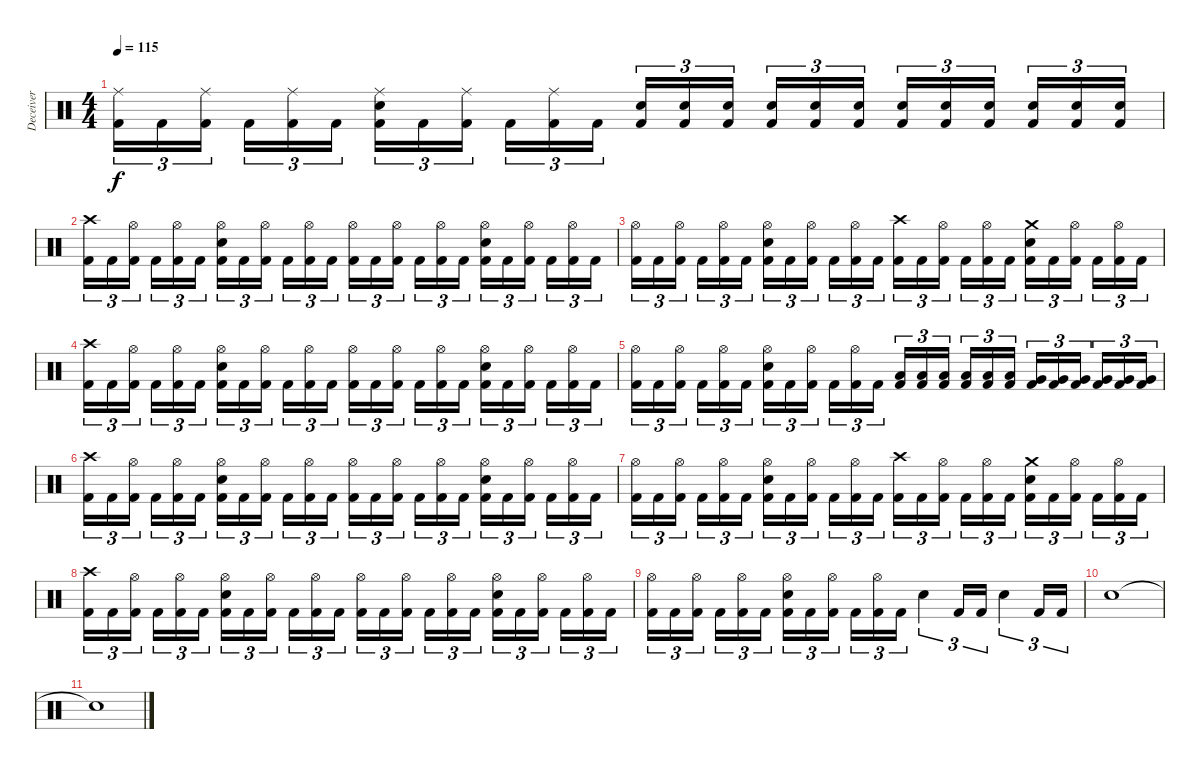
\track ("Deceiver" "Deceiver") {instrument percussion}
\staff {score}
\articulation defaults
\ts (4 4)
\tempo 115
\clef neutral
\ks c
("Ride (middle)" "Kick (hit) 2").16{tu (3 2) dy f} "Kick (hit) 2".16{tu (3 2)} ("Ride (middle)" "Kick (hit) 2").16{tu (3 2) beam splitsecondary} "Kick (hit) 2".16{tu (3 2)} ("Ride (middle)" "Kick (hit) 2").16{tu (3 2)} "Kick (hit) 2".16{tu (3 2)} ("Ride (middle)" "Electric Snare (hit)" "Kick (hit) 2").16{tu (3 2)} "Kick (hit) 2".16{tu (3 2)} ("Ride (middle)" "Kick (hit) 2").16{tu (3 2) beam splitsecondary} "Kick (hit) 2".16{tu (3 2)} ("Ride (middle)" "Kick (hit) 2").16{tu (3 2)} "Kick (hit) 2".16{tu (3 2)} ("Electric Snare (hit)" "Kick (hit) 2").16{tu (3 2)} ("Electric Snare (hit)" "Kick (hit) 2").16{tu (3 2)} ("Electric Snare (hit)" "Kick (hit) 2").16{tu (3 2) beam splitsecondary} ("Electric Snare (hit)" "Kick (hit) 2").16{tu (3 2)} ("Electric Snare (hit)" "Kick (hit) 2").16{tu (3 2)} ("Electric Snare (hit)" "Kick (hit) 2").16{tu (3 2)} ("Electric Snare (hit)" "Kick (hit) 2").16{tu (3 2)} ("Electric Snare (hit)" "Kick (hit) 2").16{tu (3 2)} ("Electric Snare (hit)" "Kick (hit) 2").16{tu (3 2) beam splitsecondary} ("Electric Snare (hit)" "Kick (hit) 2").16{tu (3 2)} ("Electric Snare (hit)" "Kick (hit) 2").16{tu (3 2)} ("Electric Snare (hit)" "Kick (hit) 2").16{tu (3 2)} |
("Crash high (hit)" "Kick (hit) 2").16{tu (3 2)} "Kick (hit) 2".16{tu (3 2)} ("Hi-Hat (open)" "Kick (hit) 2").16{tu (3 2) beam splitsecondary} "Kick (hit) 2".16{tu (3 2)} ("Hi-Hat (open)" "Kick (hit) 2").16{tu (3 2)} "Kick (hit) 2".16{tu (3 2)} ("Hi-Hat (open)" "Electric Snare (hit)" "Kick (hit) 2").16{tu (3 2)} "Kick (hit) 2".16{tu (3 2)} ("Hi-Hat (open)" "Kick (hit) 2").16{tu (3 2) beam splitsecondary} "Kick (hit) 2".16{tu (3 2)} ("Hi-Hat (open)" "Kick (hit) 2").16{tu (3 2)} "Kick (hit) 2".16{tu (3 2)} ("Hi-Hat (open)" "Kick (hit) 2").16{tu (3 2)} "Kick (hit) 2".16{tu (3 2)} ("Hi-Hat (open)" "Kick (hit) 2").16{tu (3 2) beam splitsecondary} "Kick (hit) 2".16{tu (3 2)} ("Hi-Hat (open)" "Kick (hit) 2").16{tu (3 2)} "Kick (hit) 2".16{tu (3 2)} ("Hi-Hat (open)" "Electric Snare (hit)" "Kick (hit) 2").16{tu (3 2)} "Kick (hit) 2".16{tu (3 2)} ("Hi-Hat (open)" "Kick (hit) 2").16{tu (3 2) beam splitsecondary} "Kick (hit) 2".16{tu (3 2)} ("Hi-Hat (open)" "Kick (hit) 2").16{tu (3 2)} "Kick (hit) 2".16{tu (3 2)} |
("Hi-Hat (open)" "Kick (hit) 2").16{tu (3 2)} "Kick (hit) 2".16{tu (3 2)} ("Hi-Hat (open)" "Kick (hit) 2").16{tu (3 2) beam splitsecondary} "Kick (hit) 2".16{tu (3 2)} ("Hi-Hat (open)" "Kick (hit) 2").16{tu (3 2)} "Kick (hit) 2".16{tu (3 2)} ("Hi-Hat (open)" "Electric Snare (hit)" "Kick (hit) 2").16{tu (3 2)} "Kick (hit) 2".16{tu (3 2)} ("Hi-Hat (open)" "Kick (hit) 2").16{tu (3 2) beam splitsecondary} "Kick (hit) 2".16{tu (3 2)} ("Hi-Hat (open)" "Kick (hit) 2").16{tu (3 2)} "Kick (hit) 2".16{tu (3 2)} ("Crash high (hit)" "Kick (hit) 2").16{tu (3 2)} "Kick (hit) 2".16{tu (3 2)} ("Hi-Hat (open)" "Kick (hit) 2").16{tu (3 2) beam splitsecondary} "Kick (hit) 2".16{tu (3 2)} ("Hi-Hat (open)" "Kick (hit) 2").16{tu (3 2)} "Kick (hit) 2".16{tu (3 2)} ("Crash medium (hit)" "Electric Snare (hit)" "Kick (hit) 2").16{tu (3 2)} "Kick (hit) 2".16{tu (3 2)} ("Hi-Hat (open)" "Kick (hit) 2").16{tu (3 2) beam splitsecondary} "Kick (hit) 2".16{tu (3 2)} ("Hi-Hat (open)" "Kick (hit) 2").16{tu (3 2)} "Kick (hit) 2".16{tu (3 2)} |
("Crash high (hit)" "Kick (hit) 2").16{tu (3 2)} "Kick (hit) 2".16{tu (3 2)} ("Hi-Hat (open)" "Kick (hit) 2").16{tu (3 2) beam splitsecondary} "Kick (hit) 2".16{tu (3 2)} ("Hi-Hat (open)" "Kick (hit) 2").16{tu (3 2)} "Kick (hit) 2".16{tu (3 2)} ("Hi-Hat (open)" "Electric Snare (hit)" "Kick (hit) 2").16{tu (3 2)} "Kick (hit) 2".16{tu (3 2)} ("Hi-Hat (open)" "Kick (hit) 2").16{tu (3 2) beam splitsecondary} "Kick (hit) 2".16{tu (3 2)} ("Hi-Hat (open)" "Kick (hit) 2").16{tu (3 2)} "Kick (hit) 2".16{tu (3 2)} ("Hi-Hat (open)" "Kick (hit) 2").16{tu (3 2)} "Kick (hit) 2".16{tu (3 2)} ("Hi-Hat (open)" "Kick (hit) 2").16{tu (3 2) beam splitsecondary} "Kick (hit) 2".16{tu (3 2)} ("Hi-Hat (open)" "Kick (hit) 2").16{tu (3 2)} "Kick (hit) 2".16{tu (3 2)} ("Hi-Hat (open)" "Electric Snare (hit)" "Kick (hit) 2").16{tu (3 2)} "Kick (hit) 2".16{tu (3 2)} ("Hi-Hat (open)" "Kick (hit) 2").16{tu (3 2) beam splitsecondary} "Kick (hit) 2".16{tu (3 2)} ("Hi-Hat (open)" "Kick (hit) 2").16{tu (3 2)} "Kick (hit) 2".16{tu (3 2)} |
("Hi-Hat (open)" "Kick (hit) 2").16{tu (3 2)} "Kick (hit) 2".16{tu (3 2)} ("Hi-Hat (open)" "Kick (hit) 2").16{tu (3 2) beam splitsecondary} "Kick (hit) 2".16{tu (3 2)} ("Hi-Hat (open)" "Kick (hit) 2").16{tu (3 2)} "Kick (hit) 2".16{tu (3 2)} ("Hi-Hat (open)" "Electric Snare (hit)" "Kick (hit) 2").16{tu (3 2)} "Kick (hit) 2".16{tu (3 2)} ("Hi-Hat (open)" "Kick (hit) 2").16{tu (3 2) beam splitsecondary} "Kick (hit) 2".16{tu (3 2)} ("Hi-Hat (open)" "Kick (hit) 2").16{tu (3 2)} "Kick (hit) 2".16{tu (3 2)} ("Low Tom (hit)" "Kick (hit) 2").16{tu (3 2)} ("Low Tom (hit)" "Kick (hit) 2").16{tu (3 2)} ("Low Tom (hit)" "Kick (hit) 2").16{tu (3 2) beam splitsecondary} ("Low Tom (hit)" "Kick (hit) 2").16{tu (3 2)} ("Low Tom (hit)" "Kick (hit) 2").16{tu (3 2)} ("Low Tom (hit)" "Kick (hit) 2").16{tu (3 2)} ("Very Low Tom (hit)" "Kick (hit) 2").16{tu (3 2)} ("Very Low Tom (hit)" "Kick (hit) 2").16{tu (3 2)} ("Very Low Tom (hit)" "Kick (hit) 2").16{tu (3 2) beam splitsecondary} ("Very Low Tom (hit)" "Kick (hit) 2").16{tu (3 2)} ("Very Low Tom (hit)" "Kick (hit) 2").16{tu (3 2)} ("Very Low Tom (hit)" "Kick (hit) 2").16{tu (3 2)} |
("Crash high (hit)" "Kick (hit) 2").16{tu (3 2)} "Kick (hit) 2".16{tu (3 2)} ("Hi-Hat (open)" "Kick (hit) 2").16{tu (3 2) beam splitsecondary} "Kick (hit) 2".16{tu (3 2)} ("Hi-Hat (open)" "Kick (hit) 2").16{tu (3 2)} "Kick (hit) 2".16{tu (3 2)} ("Hi-Hat (open)" "Electric Snare (hit)" "Kick (hit) 2").16{tu (3 2)} "Kick (hit) 2".16{tu (3 2)} ("Hi-Hat (open)" "Kick (hit) 2").16{tu (3 2) beam splitsecondary} "Kick (hit) 2".16{tu (3 2)} ("Hi-Hat (open)" "Kick (hit) 2").16{tu (3 2)} "Kick (hit) 2".16{tu (3 2)} ("Hi-Hat (open)" "Kick (hit) 2").16{tu (3 2)} "Kick (hit) 2".16{tu (3 2)} ("Hi-Hat (open)" "Kick (hit) 2").16{tu (3 2) beam splitsecondary} "Kick (hit) 2".16{tu (3 2)} ("Hi-Hat (open)" "Kick (hit) 2").16{tu (3 2)} "Kick (hit) 2".16{tu (3 2)} ("Hi-Hat (open)" "Electric Snare (hit)" "Kick (hit) 2").16{tu (3 2)} "Kick (hit) 2".16{tu (3 2)} ("Hi-Hat (open)" "Kick (hit) 2").16{tu (3 2) beam splitsecondary} "Kick (hit) 2".16{tu (3 2)} ("Hi-Hat (open)" "Kick (hit) 2").16{tu (3 2)} "Kick (hit) 2".16{tu (3 2)} |
("Hi-Hat (open)" "Kick (hit) 2").16{tu (3 2)} "Kick (hit) 2".16{tu (3 2)} ("Hi-Hat (open)" "Kick (hit) 2").16{tu (3 2) beam splitsecondary} "Kick (hit) 2".16{tu (3 2)} ("Hi-Hat (open)" "Kick (hit) 2").16{tu (3 2)} "Kick (hit) 2".16{tu (3 2)} ("Hi-Hat (open)" "Electric Snare (hit)" "Kick (hit) 2").16{tu (3 2)} "Kick (hit) 2".16{tu (3 2)} ("Hi-Hat (open)" "Kick (hit) 2").16{tu (3 2) beam splitsecondary} "Kick (hit) 2".16{tu (3 2)} ("Hi-Hat (open)" "Kick (hit) 2").16{tu (3 2)} "Kick (hit) 2".16{tu (3 2)} ("Crash high (hit)" "Kick (hit) 2").16{tu (3 2)} "Kick (hit) 2".16{tu (3 2)} ("Hi-Hat (open)" "Kick (hit) 2").16{tu (3 2) beam splitsecondary} "Kick (hit) 2".16{tu (3 2)} ("Hi-Hat (open)" "Kick (hit) 2").16{tu (3 2)} "Kick (hit) 2".16{tu (3 2)} ("Crash medium (hit)" "Electric Snare (hit)" "Kick (hit) 2").16{tu (3 2)} "Kick (hit) 2".16{tu (3 2)} ("Hi-Hat (open)" "Kick (hit) 2").16{tu (3 2) beam splitsecondary} "Kick (hit) 2".16{tu (3 2)} ("Hi-Hat (open)" "Kick (hit) 2").16{tu (3 2)} "Kick (hit) 2".16{tu (3 2)} |
("Crash high (hit)" "Kick (hit) 2").16{tu (3 2)} "Kick (hit) 2".16{tu (3 2)} ("Hi-Hat (open)" "Kick (hit) 2").16{tu (3 2) beam splitsecondary} "Kick (hit) 2".16{tu (3 2)} ("Hi-Hat (open)" "Kick (hit) 2").16{tu (3 2)} "Kick (hit) 2".16{tu (3 2)} ("Hi-Hat (open)" "Electric Snare (hit)" "Kick (hit) 2").16{tu (3 2)} "Kick (hit) 2".16{tu (3 2)} ("Hi-Hat (open)" "Kick (hit) 2").16{tu (3 2) beam splitsecondary} "Kick (hit) 2".16{tu (3 2)} ("Hi-Hat (open)" "Kick (hit) 2").16{tu (3 2)} "Kick (hit) 2".16{tu (3 2)} ("Hi-Hat (open)" "Kick (hit) 2").16{tu (3 2)} "Kick (hit) 2".16{tu (3 2)} ("Hi-Hat (open)" "Kick (hit) 2").16{tu (3 2) beam splitsecondary} "Kick (hit) 2".16{tu (3 2)} ("Hi-Hat (open)" "Kick (hit) 2").16{tu (3 2)} "Kick (hit) 2".16{tu (3 2)} ("Hi-Hat (open)" "Electric Snare (hit)" "Kick (hit) 2").16{tu (3 2)} "Kick (hit) 2".16{tu (3 2)} ("Hi-Hat (open)" "Kick (hit) 2").16{tu (3 2) beam splitsecondary} "Kick (hit) 2".16{tu (3 2)} ("Hi-Hat (open)" "Kick (hit) 2").16{tu (3 2)} "Kick (hit) 2".16{tu (3 2)} |
("Hi-Hat (open)" "Kick (hit) 2").16{tu (3 2)} "Kick (hit) 2".16{tu (3 2)} ("Hi-Hat (open)" "Kick (hit) 2").16{tu (3 2) beam splitsecondary} "Kick (hit) 2".16{tu (3 2)} ("Hi-Hat (open)" "Kick (hit) 2").16{tu (3 2)} "Kick (hit) 2".16{tu (3 2)} ("Hi-Hat (open)" "Electric Snare (hit)" "Kick (hit) 2").16{tu (3 2)} "Kick (hit) 2".16{tu (3 2)} ("Hi-Hat (open)" "Kick (hit) 2").16{tu (3 2) beam splitsecondary} "Kick (hit) 2".16{tu (3 2)} ("Hi-Hat (open)" "Kick (hit) 2").16{tu (3 2)} "Kick (hit) 2".16{tu (3 2)} "Electric Snare (hit)".4{tu (3 2)} "Kick (hit) 2".16{tu (3 2)} "Kick (hit) 2".16{tu (3 2)} "Electric Snare (hit)".4{tu (3 2)} "Kick (hit) 2".16{tu (3 2)} "Kick (hit) 2".16{tu (3 2)} |
"Electric Snare (hit)".1 |
"Snare (hit)"{t}.1
